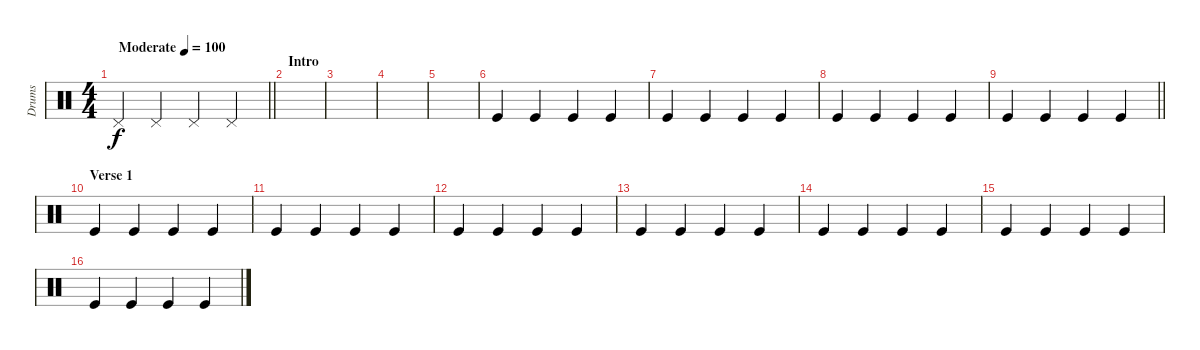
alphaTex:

\track ("Drums" "Drums") {instrument percussion}
\staff {score}
\articulation defaults
\ts (4 4)
\tempo (100 "Moderate")
\clef neutral
\barLineRight lightlight
\ks c "Pedal Hi-Hat (hit)".4{dy f} "Pedal Hi-Hat (hit)".4 "Pedal Hi-Hat (hit)".4 "Pedal Hi-Hat (hit)".4
|
\section ("" "Intro")
|
|
|
|
"Kick (hit)".4 "Kick (hit)".4 "Kick (hit)".4 "Kick (hit)".4 |
"Kick (hit)".4 "Kick (hit)".4 "Kick (hit)".4 "Kick (hit)".4 |
"Kick (hit)".4 "Kick (hit)".4 "Kick (hit)".4 "Kick (hit)".4 |
\barLineRight lightlight "Kick (hit)".4 "Kick (hit)".4 "Kick (hit)".4 "Kick (hit)".4
|
\section ("" "Verse 1")
"Kick (hit)".4 "Kick (hit)".4 "Kick (hit)".4 "Kick (hit)".4 |
"Kick (hit)".4 "Kick (hit)".4 "Kick (hit)".4 "Kick (hit)".4 |
"Kick (hit)".4 "Kick (hit)".4 "Kick (hit)".4 "Kick (hit)".4 |
"Kick (hit)".4 "Kick (hit)".4 "Kick (hit)".4 "Kick (hit)".4 |
"Kick (hit)".4 "Kick (hit)".4 "Kick (hit)".4 "Kick (hit)".4 |
"Kick (hit)".4 "Kick (hit)".4 "Kick (hit)".4 "Kick (hit)".4 |
"Kick (hit)".4 "Kick (hit)".4 "Kick (hit)".4 "Kick (hit)".4
